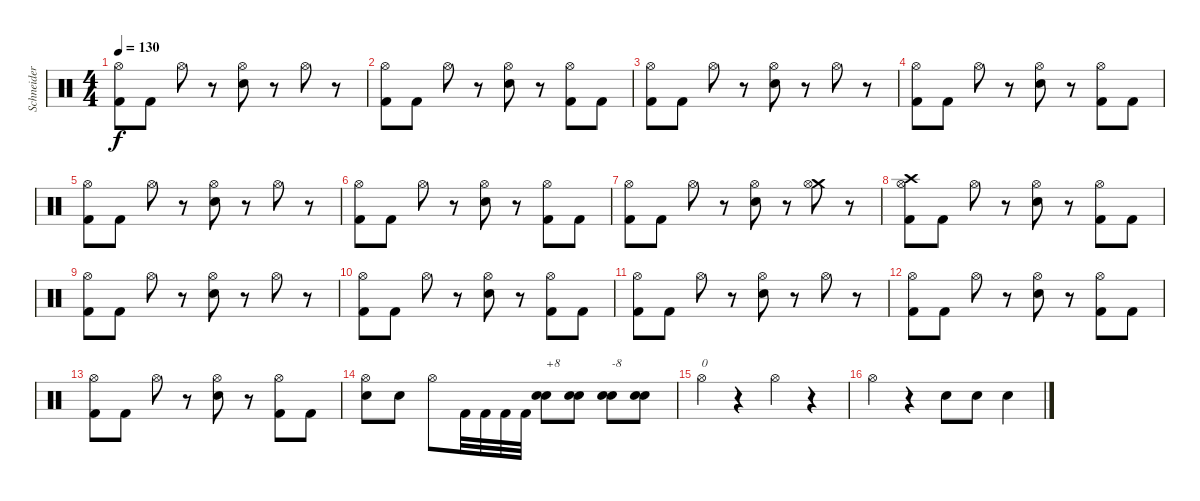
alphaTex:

\track ("Schneider - Drums" "Schneider ") {instrument percussion}
\staff {score}
\articulation defaults
\ts (4 4)
\tempo 130
\clef neutral
\ks c
("Kick (hit) 2" "Hi-Hat (open)").8{dy f} "Kick (hit) 2".8 "Hi-Hat (open)".8 r.8 ("Electric Snare (hit)" "Hi-Hat (open)").8 r.8 "Hi-Hat (open)".8 r.8 |
("Kick (hit) 2" "Hi-Hat (open)").8 "Kick (hit) 2".8 "Hi-Hat (open)".8 r.8 ("Electric Snare (hit)" "Hi-Hat (open)").8 r.8 ("Kick (hit) 2" "Hi-Hat (open)").8 "Kick (hit) 2".8 |
("Kick (hit) 2" "Hi-Hat (open)").8 "Kick (hit) 2".8 "Hi-Hat (open)".8 r.8 ("Electric Snare (hit)" "Hi-Hat (open)").8 r.8 "Hi-Hat (open)".8 r.8 |
("Kick (hit) 2" "Hi-Hat (open)").8 "Kick (hit) 2".8 "Hi-Hat (open)".8 r.8 ("Electric Snare (hit)" "Hi-Hat (open)").8 r.8 ("Kick (hit) 2" "Hi-Hat (open)").8 "Kick (hit) 2".8 |
("Kick (hit) 2" "Hi-Hat (open)").8 "Kick (hit) 2".8 "Hi-Hat (open)".8 r.8 ("Electric Snare (hit)" "Hi-Hat (open)").8 r.8 "Hi-Hat (open)".8 r.8 |
("Kick (hit) 2" "Hi-Hat (open)").8 "Kick (hit) 2".8 "Hi-Hat (open)".8 r.8 ("Electric Snare (hit)" "Hi-Hat (open)").8 r.8 ("Kick (hit) 2" "Hi-Hat (open)").8 "Kick (hit) 2".8 |
("Kick (hit) 2" "Hi-Hat (open)").8 "Kick (hit) 2".8 "Hi-Hat (open)".8 r.8 ("Electric Snare (hit)" "Hi-Hat (open)").8 r.8 ("Crash medium (hit)" "Hi-Hat (open)").8 r.8 |
("Kick (hit) 2" "Hi-Hat (open)" "Crash high (hit)").8 "Kick (hit) 2".8 "Hi-Hat (open)".8 r.8 ("Electric Snare (hit)" "Hi-Hat (open)").8 r.8 ("Kick (hit) 2" "Hi-Hat (open)").8 "Kick (hit) 2".8 |
("Kick (hit) 2" "Hi-Hat (open)").8 "Kick (hit) 2".8 "Hi-Hat (open)".8 r.8 ("Electric Snare (hit)" "Hi-Hat (open)").8 r.8 "Hi-Hat (open)".8 r.8 |
("Kick (hit) 2" "Hi-Hat (open)").8 "Kick (hit) 2".8 "Hi-Hat (open)".8 r.8 ("Electric Snare (hit)" "Hi-Hat (open)").8 r.8 ("Kick (hit) 2" "Hi-Hat (open)").8 "Kick (hit) 2".8 |
("Kick (hit) 2" "Hi-Hat (open)").8 "Kick (hit) 2".8 "Hi-Hat (open)".8 r.8 ("Electric Snare (hit)" "Hi-Hat (open)").8 r.8 "Hi-Hat (open)".8 r.8 |
("Kick (hit) 2" "Hi-Hat (open)").8 "Kick (hit) 2".8 "Hi-Hat (open)".8 r.8 ("Electric Snare (hit)" "Hi-Hat (open)").8 r.8 ("Kick (hit) 2" "Hi-Hat (open)").8 "Kick (hit) 2".8 |
("Kick (hit) 2" "Hi-Hat (open)").8 "Kick (hit) 2".8 "Hi-Hat (open)".8 r.8 ("Electric Snare (hit)" "Hi-Hat (open)").8 r.8 ("Kick (hit) 2" "Hi-Hat (open)").8 "Kick (hit) 2".8 |
("Electric Snare (hit)" "Hi-Hat (open)").8 "Electric Snare (hit)".8 "Hi-Hat (open)".8 "Kick (hit) 2".32 "Kick (hit) 2".32 "Kick (hit) 2".32 "Kick (hit) 2".32 ("Electric Snare (hit)" "Electric Snare (hit)").8{txt "+8" balance 16} ("Electric Snare (hit)" "Electric Snare (hit)").8 ("Electric Snare (hit)" "Electric Snare (hit)").8{txt "-8" balance 0} ("Electric Snare (hit)" "Electric Snare (hit)").8 |
"Hi-Hat (open)".4{txt "0" balance 8} r.4 "Hi-Hat (open)".4 r.4 |
"Hi-Hat (open)".4 r.4 "Electric Snare (hit)".8 "Electric Snare (hit)".8 "Electric Snare (hit)".4
